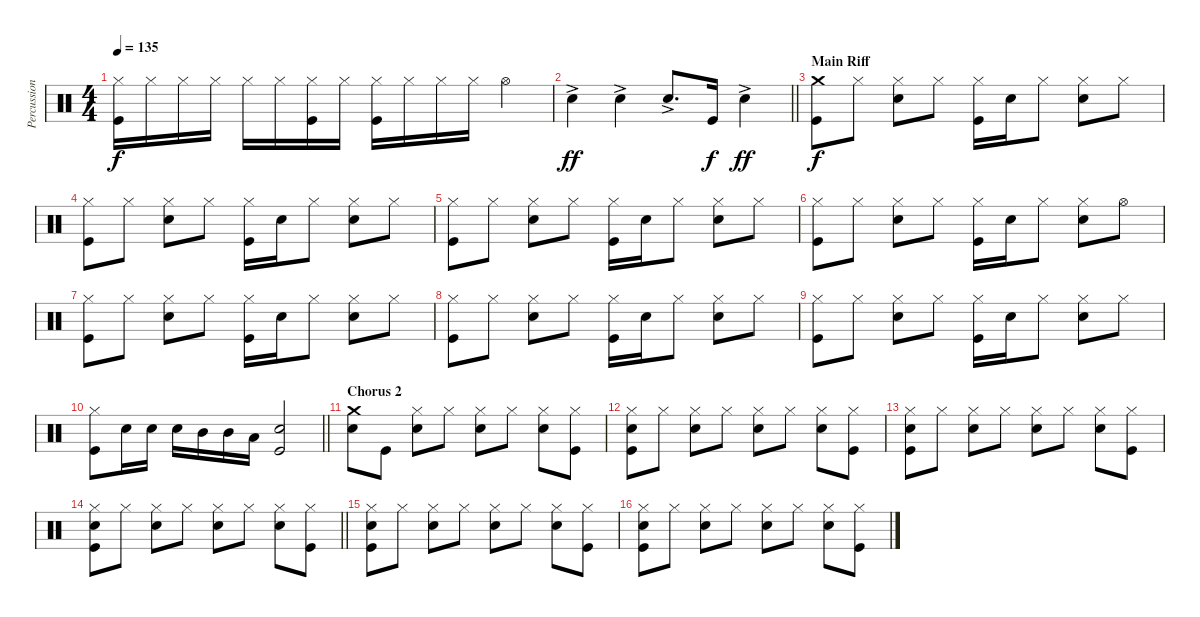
\track ("Percussion" "Percussion") {instrument percussion}
\staff {score}
\articulation defaults
\ts (4 4)
\tempo 135
\clef neutral
\ks c
("Kick (hit)" "Hi-Hat (closed)").16{dy f} "Hi-Hat (closed)".16 "Hi-Hat (closed)".16 "Hi-Hat (closed)".16 "Hi-Hat (closed)".16 "Hi-Hat (closed)".16 ("Kick (hit)" "Hi-Hat (closed)").16 "Hi-Hat (closed)".16 ("Kick (hit)" "Hi-Hat (closed)").16 "Hi-Hat (closed)".16 "Hi-Hat (closed)".16 "Hi-Hat (closed)".16 "Hi-Hat (open)".4 |
\barLineRight lightlight "Snare (hit) 2"{ac}.4{dy ff} "Snare (hit) 2"{ac}.4 "Snare (hit) 2"{ac}.8{d} "Kick (hit)".16{dy f} "Snare (hit) 2"{ac}.4{dy ff}
|
\section ("" "Main Riff")
("Kick (hit)" "Crash medium (hit)").8{dy f} "Hi-Hat (closed)".8 ("Hi-Hat (closed)" "Snare (hit) 2").8 "Hi-Hat (closed)".8 ("Kick (hit)" "Hi-Hat (closed)").16 "Snare (hit) 2".16 "Hi-Hat (closed)".8 ("Hi-Hat (closed)" "Snare (hit) 2").8 "Hi-Hat (closed)".8 |
("Kick (hit)" "Hi-Hat (closed)").8 "Hi-Hat (closed)".8 ("Hi-Hat (closed)" "Snare (hit) 2").8 "Hi-Hat (closed)".8 ("Kick (hit)" "Hi-Hat (closed)").16 "Snare (hit) 2".16 "Hi-Hat (closed)".8 ("Hi-Hat (closed)" "Snare (hit) 2").8 "Hi-Hat (closed)".8 |
("Kick (hit)" "Hi-Hat (closed)").8 "Hi-Hat (closed)".8 ("Hi-Hat (closed)" "Snare (hit) 2").8 "Hi-Hat (closed)".8 ("Kick (hit)" "Hi-Hat (closed)").16 "Snare (hit) 2".16 "Hi-Hat (closed)".8 ("Hi-Hat (closed)" "Snare (hit) 2").8 "Hi-Hat (closed)".8 |
("Kick (hit)" "Hi-Hat (closed)").8 "Hi-Hat (closed)".8 ("Hi-Hat (closed)" "Snare (hit) 2").8 "Hi-Hat (closed)".8 ("Kick (hit)" "Hi-Hat (closed)").16 "Snare (hit) 2".16 "Hi-Hat (closed)".8 ("Hi-Hat (closed)" "Snare (hit) 2").8 "Hi-Hat (open)".8 |
("Kick (hit)" "Hi-Hat (closed)").8 "Hi-Hat (closed)".8 ("Hi-Hat (closed)" "Snare (hit) 2").8 "Hi-Hat (closed)".8 ("Kick (hit)" "Hi-Hat (closed)").16 "Snare (hit) 2".16 "Hi-Hat (closed)".8 ("Hi-Hat (closed)" "Snare (hit) 2").8 "Hi-Hat (closed)".8 |
("Kick (hit)" "Hi-Hat (closed)").8 "Hi-Hat (closed)".8 ("Hi-Hat (closed)" "Snare (hit) 2").8 "Hi-Hat (closed)".8 ("Kick (hit)" "Hi-Hat (closed)").16 "Snare (hit) 2".16 "Hi-Hat (closed)".8 ("Hi-Hat (closed)" "Snare (hit) 2").8 "Hi-Hat (closed)".8 |
("Kick (hit)" "Hi-Hat (closed)").8 "Hi-Hat (closed)".8 ("Hi-Hat (closed)" "Snare (hit) 2").8 "Hi-Hat (closed)".8 ("Kick (hit)" "Hi-Hat (closed)").16 "Snare (hit) 2".16 "Hi-Hat (closed)".8 ("Hi-Hat (closed)" "Snare (hit) 2").8 "Hi-Hat (closed)".8 |
\barLineRight lightlight
("Kick (hit)" "Hi-Hat (closed)").8 "Snare (hit) 2".16 "Snare (hit) 2".16 "Snare (hit) 2".16 "Mid Tom (hit)".16 "Mid Tom (hit)".16 "Low Tom (hit)".16 ("Kick (hit)" "Snare (hit) 2").2 |
\section ("" "Chorus 2")
("Crash medium (hit)" "Snare (hit) 2").8 "Kick (hit)".8 ("Hi-Hat (closed)" "Snare (hit) 2").8 "Hi-Hat (closed)".8 ("Hi-Hat (closed)" "Snare (hit) 2").8 "Hi-Hat (closed)".8 ("Hi-Hat (closed)" "Snare (hit) 2").8 ("Kick (hit)" "Hi-Hat (closed)").8 |
("Kick (hit)" "Hi-Hat (closed)" "Snare (hit) 2").8 "Hi-Hat (closed)".8 ("Hi-Hat (closed)" "Snare (hit) 2").8 "Hi-Hat (closed)".8 ("Hi-Hat (closed)" "Snare (hit) 2").8 "Hi-Hat (closed)".8 ("Hi-Hat (closed)" "Snare (hit) 2").8 ("Kick (hit)" "Hi-Hat (closed)").8 |
("Kick (hit)" "Hi-Hat (closed)" "Snare (hit) 2").8 "Hi-Hat (closed)".8 ("Hi-Hat (closed)" "Snare (hit) 2").8 "Hi-Hat (closed)".8 ("Hi-Hat (closed)" "Snare (hit) 2").8 "Hi-Hat (closed)".8 ("Hi-Hat (closed)" "Snare (hit) 2").8 ("Kick (hit)" "Hi-Hat (closed)").8 |
\barLineRight lightlight
("Kick (hit)" "Hi-Hat (closed)" "Snare (hit) 2").8 "Hi-Hat (closed)".8 ("Hi-Hat (closed)" "Snare (hit) 2").8 "Hi-Hat (closed)".8 ("Hi-Hat (closed)" "Snare (hit) 2").8 "Hi-Hat (closed)".8 ("Hi-Hat (closed)" "Snare (hit) 2").8 ("Kick (hit)" "Hi-Hat (closed)").8 |
("Kick (hit)" "Hi-Hat (closed)" "Snare (hit) 2").8 "Hi-Hat (closed)".8 ("Hi-Hat (closed)" "Snare (hit) 2").8 "Hi-Hat (closed)".8 ("Hi-Hat (closed)" "Snare (hit) 2").8 "Hi-Hat (closed)".8 ("Hi-Hat (closed)" "Snare (hit) 2").8 ("Kick (hit)" "Hi-Hat (closed)").8 |
("Kick (hit)" "Hi-Hat (closed)" "Snare (hit) 2").8 "Hi-Hat (closed)".8 ("Hi-Hat (closed)" "Snare (hit) 2").8 "Hi-Hat (closed)".8 ("Hi-Hat (closed)" "Snare (hit) 2").8 "Hi-Hat (closed)".8 ("Hi-Hat (closed)" "Snare (hit) 2").8 ("Kick (hit)" "Hi-Hat (closed)").8
